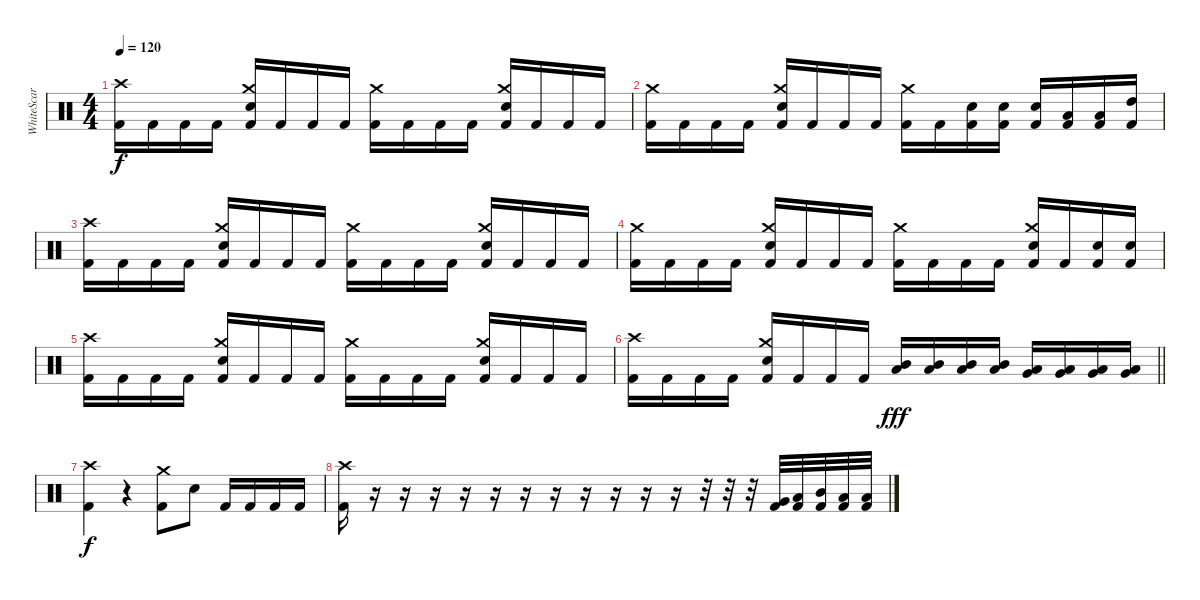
\track ("WhiteScar" "WhiteScar") {instrument percussion}
\staff {score}
\articulation defaults
\ts (4 4)
\tempo 120
\clef neutral
\ks c
("Crash high (hit)" "Kick (hit) 2").16{dy f} "Kick (hit) 2".16 "Kick (hit) 2".16 "Kick (hit) 2".16 ("Crash medium (hit)" "Snare (hit) 2" "Kick (hit) 2").16 "Kick (hit) 2".16 "Kick (hit) 2".16 "Kick (hit) 2".16 ("Crash medium (hit)" "Kick (hit) 2").16 "Kick (hit) 2".16 "Kick (hit) 2".16 "Kick (hit) 2".16 ("Crash medium (hit)" "Snare (hit) 2" "Kick (hit) 2").16 "Kick (hit) 2".16 "Kick (hit) 2".16 "Kick (hit) 2".16 |
("Crash medium (hit)" "Kick (hit) 2").16 "Kick (hit) 2".16 "Kick (hit) 2".16 "Kick (hit) 2".16 ("Crash medium (hit)" "Snare (hit) 2" "Kick (hit) 2").16 "Kick (hit) 2".16 "Kick (hit) 2".16 "Kick (hit) 2".16 ("Crash medium (hit)" "Kick (hit) 2").16 "Kick (hit) 2".16 ("Snare (hit) 2" "Kick (hit) 2").16 ("Snare (hit) 2" "Kick (hit) 2").16 ("Snare (hit) 2" "Kick (hit) 2").16 ("Low Tom (hit)" "Kick (hit) 2").16 ("Low Tom (hit)" "Kick (hit) 2").16 ("High Tom (hit)" "Kick (hit) 2").16 |
("Crash high (hit)" "Kick (hit) 2").16 "Kick (hit) 2".16 "Kick (hit) 2".16 "Kick (hit) 2".16 ("Crash medium (hit)" "Snare (hit) 2" "Kick (hit) 2").16 "Kick (hit) 2".16 "Kick (hit) 2".16 "Kick (hit) 2".16 ("Crash medium (hit)" "Kick (hit) 2").16 "Kick (hit) 2".16 "Kick (hit) 2".16 "Kick (hit) 2".16 ("Crash medium (hit)" "Snare (hit) 2" "Kick (hit) 2").16 "Kick (hit) 2".16 "Kick (hit) 2".16 "Kick (hit) 2".16 |
("Crash medium (hit)" "Kick (hit) 2").16 "Kick (hit) 2".16 "Kick (hit) 2".16 "Kick (hit) 2".16 ("Crash medium (hit)" "Snare (hit) 2" "Kick (hit) 2").16 "Kick (hit) 2".16 "Kick (hit) 2".16 "Kick (hit) 2".16 ("Crash medium (hit)" "Kick (hit) 2").16 "Kick (hit) 2".16 "Kick (hit) 2".16 "Kick (hit) 2".16 ("Crash medium (hit)" "Snare (hit) 2" "Kick (hit) 2").16 "Kick (hit) 2".16 ("Snare (hit) 2" "Kick (hit) 2").16 ("Snare (hit) 2" "Kick (hit) 2").16 |
("Crash high (hit)" "Kick (hit) 2").16 "Kick (hit) 2".16 "Kick (hit) 2".16 "Kick (hit) 2".16 ("Crash medium (hit)" "Snare (hit) 2" "Kick (hit) 2").16 "Kick (hit) 2".16 "Kick (hit) 2".16 "Kick (hit) 2".16 ("Crash medium (hit)" "Kick (hit) 2").16 "Kick (hit) 2".16 "Kick (hit) 2".16 "Kick (hit) 2".16 ("Crash medium (hit)" "Snare (hit) 2" "Kick (hit) 2").16 "Kick (hit) 2".16 "Kick (hit) 2".16 "Kick (hit) 2".16 |
\barLineRight lightlight
("Crash high (hit)" "Kick (hit) 2").16 "Kick (hit) 2".16 "Kick (hit) 2".16 "Kick (hit) 2".16 ("Crash medium (hit)" "Snare (hit) 2" "Kick (hit) 2").16 "Kick (hit) 2".16 "Kick (hit) 2".16 "Kick (hit) 2".16 ("Mid Tom (hit)" "Low Tom (hit)").16{dy fff} ("Mid Tom (hit)" "Low Tom (hit)").16 ("Mid Tom (hit)" "Low Tom (hit)").16 ("Mid Tom (hit)" "Low Tom (hit)").16 ("Low Tom (hit)" "Very Low Tom (hit)").16 ("Low Tom (hit)" "Very Low Tom (hit)").16 ("Low Tom (hit)" "Very Low Tom (hit)").16 ("Low Tom (hit)" "Very Low Tom (hit)").16 |
("Crash high (hit)" "Kick (hit) 2").4{dy f} r.4 ("Crash medium (hit)" "Kick (hit) 2").8 "Snare (hit) 2".8 "Kick (hit) 2".16 "Kick (hit) 2".16 "Kick (hit) 2".16 "Kick (hit) 2".16 |
("Crash high (hit)" "Kick (hit) 2").16 r.16 r.16 r.16 r.16 r.16 r.16 r.16 r.16 r.16 r.16 r.16 r.32 r.32 r.32 ("Very Low Tom (hit)" "Kick (hit) 2").32 ("Low Tom (hit)" "Kick (hit) 2").32 ("Mid Tom (hit)" "Kick (hit) 2").32 ("Low Floor Tom (hit)" "Kick (hit) 2").32 ("Low Floor Tom (hit)" "Kick (hit) 2").32
